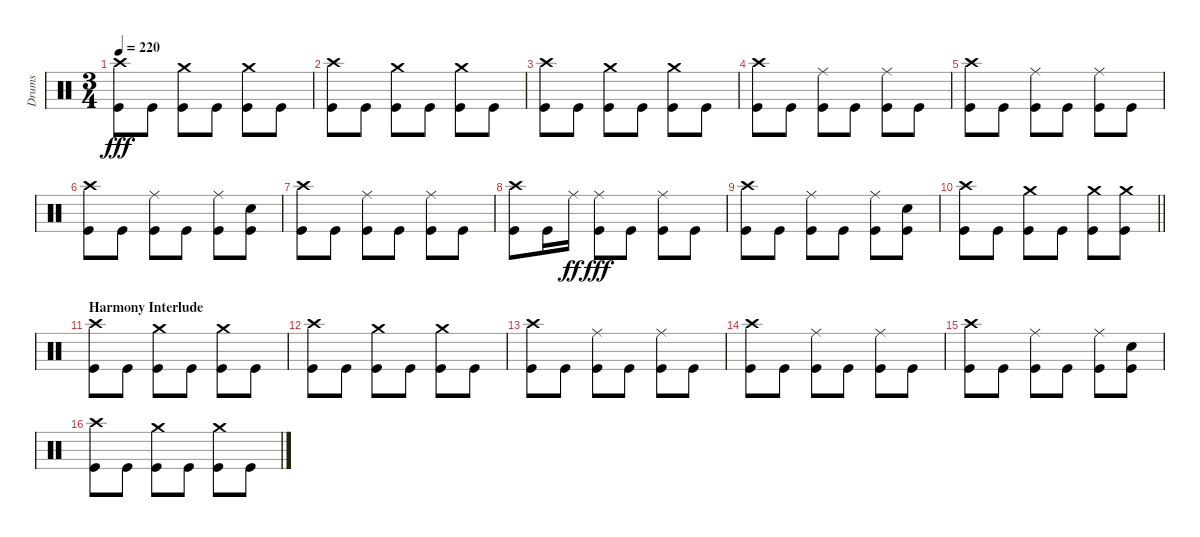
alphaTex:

\track ("Drums" "Drums") {instrument percussion}
\staff {score}
\articulation defaults
\ts (3 4)
\tempo 220
\clef neutral
\ks c
("Crash high (hit)" "Kick (hit)").8{dy fff} "Kick (hit)".8 ("Crash medium (hit)" "Kick (hit)").8 "Kick (hit)".8 ("Crash medium (hit)" "Kick (hit)").8 "Kick (hit)".8 |
("Crash high (hit)" "Kick (hit)").8 "Kick (hit)".8 ("Crash medium (hit)" "Kick (hit)").8 "Kick (hit)".8 ("Crash medium (hit)" "Kick (hit)").8 "Kick (hit)".8 |
("Crash high (hit)" "Kick (hit)").8 "Kick (hit)".8 ("Crash medium (hit)" "Kick (hit)").8 "Kick (hit)".8 ("Crash medium (hit)" "Kick (hit)").8 "Kick (hit)".8 |
("Crash high (hit)" "Kick (hit)").8 "Kick (hit)".8 ("Ride (middle)" "Kick (hit)").8 "Kick (hit)".8 ("Ride (middle)" "Kick (hit)").8 "Kick (hit)".8 |
("Crash high (hit)" "Kick (hit)").8 "Kick (hit)".8 ("Ride (middle)" "Kick (hit)").8 "Kick (hit)".8 ("Ride (middle)" "Kick (hit)").8 "Kick (hit)".8 |
("Crash high (hit)" "Kick (hit)").8 "Kick (hit)".8 ("Ride (middle)" "Kick (hit)").8 "Kick (hit)".8 ("Ride (middle)" "Kick (hit)").8 ("Electric Snare (hit)" "Kick (hit)").8 |
("Crash high (hit)" "Kick (hit)").8 "Kick (hit)".8 ("Ride (middle)" "Kick (hit)").8 "Kick (hit)".8 ("Ride (middle)" "Kick (hit)").8 "Kick (hit)".8 |
("Crash high (hit)" "Kick (hit)").8 "Kick (hit)".16 "Ride (middle)".16{dy ff} ("Ride (middle)" "Kick (hit)").8{dy fff} "Kick (hit)".8 ("Ride (middle)" "Kick (hit)").8 "Kick (hit)".8 |
("Crash high (hit)" "Kick (hit)").8 "Kick (hit)".8 ("Ride (middle)" "Kick (hit)").8 "Kick (hit)".8 ("Ride (middle)" "Kick (hit)").8 ("Electric Snare (hit)" "Kick (hit)").8 |
\barLineRight lightlight
("Crash high (hit)" "Kick (hit)").8 "Kick (hit)".8 ("Crash medium (hit)" "Kick (hit)").8 "Kick (hit)".8 ("Crash medium (hit)" "Kick (hit)").8 ("Crash medium (hit)" "Kick (hit)").8 |
\section ("" "Harmony Interlude")
("Crash high (hit)" "Kick (hit)").8 "Kick (hit)".8 ("Crash medium (hit)" "Kick (hit)").8 "Kick (hit)".8 ("Crash medium (hit)" "Kick (hit)").8 "Kick (hit)".8 |
("Crash high (hit)" "Kick (hit)").8 "Kick (hit)".8 ("Crash medium (hit)" "Kick (hit)").8 "Kick (hit)".8 ("Crash medium (hit)" "Kick (hit)").8 "Kick (hit)".8 |
("Crash high (hit)" "Kick (hit)").8 "Kick (hit)".8 ("Ride (middle)" "Kick (hit)").8 "Kick (hit)".8 ("Ride (middle)" "Kick (hit)").8 "Kick (hit)".8 |
("Crash high (hit)" "Kick (hit)").8 "Kick (hit)".8 ("Ride (middle)" "Kick (hit)").8 "Kick (hit)".8 ("Ride (middle)" "Kick (hit)").8 "Kick (hit)".8 |
("Crash high (hit)" "Kick (hit)").8 "Kick (hit)".8 ("Ride (middle)" "Kick (hit)").8 "Kick (hit)".8 ("Ride (middle)" "Kick (hit)").8 ("Electric Snare (hit)" "Kick (hit)").8 |
("Crash high (hit)" "Kick (hit)").8 "Kick (hit)".8 ("Crash medium (hit)" "Kick (hit)").8 "Kick (hit)".8 ("Crash medium (hit)" "Kick (hit)").8 "Kick (hit)".8
